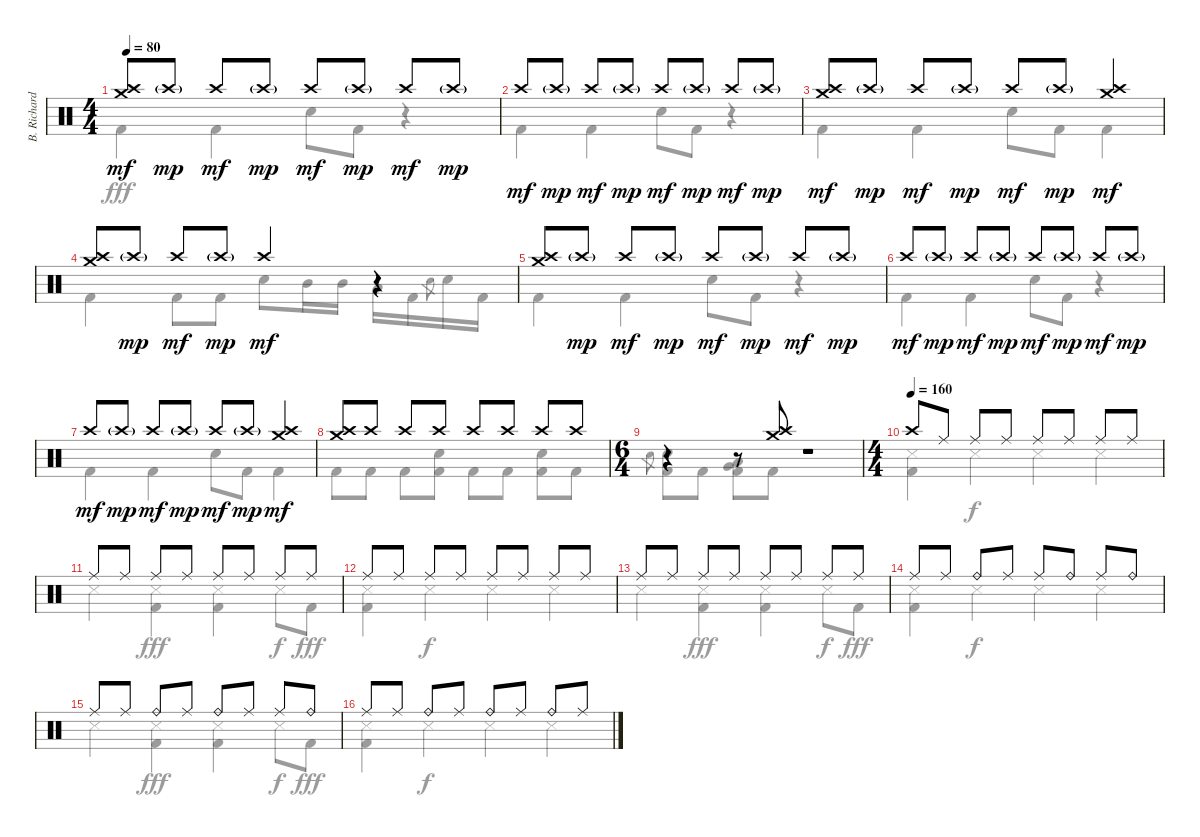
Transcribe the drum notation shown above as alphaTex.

\track ("B. Richardson Drums" "B. Richard") {instrument percussion}
\staff {score}
\articulation defaults
\voice
\ts (4 4)
\tempo 80
\clef neutral
\ks c
("Crash high (hit)" "Crash medium (hit)").8{dy mf} "Crash high (hit)"{g}.8{dy mp} "Crash high (hit)".8{dy mf} "Crash high (hit)"{g}.8{dy mp} "Crash high (hit)".8{dy mf} "Crash high (hit)"{g}.8{dy mp} "Crash high (hit)".8{dy mf} "Crash high (hit)"{g}.8{dy mp} |
"Crash high (hit)".8{dy mf} "Crash high (hit)"{g}.8{dy mp} "Crash high (hit)".8{dy mf} "Crash high (hit)"{g}.8{dy mp} "Crash high (hit)".8{dy mf} "Crash high (hit)"{g}.8{dy mp} "Crash high (hit)".8{dy mf} "Crash high (hit)"{g}.8{dy mp} |
("Crash high (hit)" "Crash medium (hit)").8{dy mf} "Crash high (hit)"{g}.8{dy mp} "Crash high (hit)".8{dy mf} "Crash high (hit)"{g}.8{dy mp} "Crash high (hit)".8{dy mf} "Crash high (hit)"{g}.8{dy mp} ("Crash high (hit)" "Crash medium (hit)").4{dy mf} |
("Crash high (hit)" "Crash medium (hit)").8 "Crash high (hit)"{g}.8{dy mp} "Crash high (hit)".8{dy mf} "Crash high (hit)"{g}.8{dy mp} "Crash high (hit)".4{dy mf} r.4 |
("Crash high (hit)" "Crash medium (hit)").8 "Crash high (hit)"{g}.8{dy mp} "Crash high (hit)".8{dy mf} "Crash high (hit)"{g}.8{dy mp} "Crash high (hit)".8{dy mf} "Crash high (hit)"{g}.8{dy mp} "Crash high (hit)".8{dy mf} "Crash high (hit)"{g}.8{dy mp} |
"Crash high (hit)".8{dy mf} "Crash high (hit)"{g}.8{dy mp} "Crash high (hit)".8{dy mf} "Crash high (hit)"{g}.8{dy mp} "Crash high (hit)".8{dy mf} "Crash high (hit)"{g}.8{dy mp} "Crash high (hit)".8{dy mf} "Crash high (hit)"{g}.8{dy mp} |
"Crash high (hit)".8{dy mf} "Crash high (hit)"{g}.8{dy mp} "Crash high (hit)".8{dy mf} "Crash high (hit)"{g}.8{dy mp} "Crash high (hit)".8{dy mf} "Crash high (hit)"{g}.8{dy mp} ("Crash high (hit)" "Crash medium (hit)").4{dy mf} |
("Crash high (hit)" "Crash medium (hit)").8 "Crash high (hit)".8 "Crash high (hit)".8 "Crash high (hit)".8 "Crash high (hit)".8 "Crash high (hit)".8 "Crash high (hit)".8 "Crash high (hit)".8 |
\ts (6 4)
r.4 r.8 ("Crash high (hit)" "Crash medium (hit)").8 r.1 |
\ts (4 4)
\tempo (160)
"Crash high (hit)".8 "Ride (middle)".8 "Ride (middle)".8 "Ride (middle)".8 "Ride (middle)".8 "Ride (middle)".8 "Ride (middle)".8 "Ride (middle)".8 |
"Ride (middle)".8 "Ride (middle)".8 "Ride (middle)".8 "Ride (middle)".8 "Ride (middle)".8 "Ride (middle)".8 "Ride (middle)".8 "Ride (middle)".8 |
"Ride (middle)".8 "Ride (middle)".8 "Ride (middle)".8 "Ride (middle)".8 "Ride (middle)".8 "Ride (middle)".8 "Ride (middle)".8 "Ride (middle)".8 |
"Ride (middle)".8 "Ride (middle)".8 "Ride (middle)".8 "Ride (middle)".8 "Ride (middle)".8 "Ride (middle)".8 "Ride (middle)".8 "Ride (middle)".8 |
"Ride (middle)".8 "Ride (middle)".8 "Ride (bell)".8 "Ride (middle)".8 "Ride (middle)".8 "Ride (bell)".8 "Ride (middle)".8 "Ride (bell)".8 |
"Ride (middle)".8 "Ride (middle)".8 "Ride (bell)".8 "Ride (middle)".8 "Ride (bell)".8 "Ride (middle)".8 "Ride (middle)".8 "Ride (bell)".8 |
"Ride (middle)".8 "Ride (middle)".8 "Ride (bell)".8 "Ride (middle)".8 "Ride (bell)".8 "Ride (middle)".8 "Ride (bell)".8 "Ride (middle)".8
\voice
\clef neutral
\ottava regular
\simile none
\ks c "Kick (hit) 2".4{dy fff} "Kick (hit) 2".4 "Electric Snare (hit)".8 "Kick (hit) 2".8
r.4 |
"Kick (hit) 2".4 "Kick (hit) 2".4 "Electric Snare (hit)".8 "Kick (hit) 2".8 r.4 |
"Kick (hit) 2".4 "Kick (hit) 2".4 "Electric Snare (hit)".8 "Kick (hit) 2".8 "Kick (hit) 2".4 |
"Kick (hit) 2".4 "Kick (hit) 2".8 "Kick (hit) 2".8 "Electric Snare (hit)".8 "Mid Tom (hit)".16 "Mid Tom (hit)".16 "Low Tom (hit)".16 "Kick (hit) 2".16 "Electric Snare (hit)".8{gr} "Electric Snare (hit)".16 "Kick (hit) 2".16 |
"Kick (hit) 2".4 "Kick (hit) 2".4 "Electric Snare (hit)".8 "Kick (hit) 2".8 r.4 |
"Kick (hit) 2".4 "Kick (hit) 2".4 "Electric Snare (hit)".8 "Kick (hit) 2".8 r.4 |
"Kick (hit) 2".4 "Kick (hit) 2".4 "Electric Snare (hit)".8 "Kick (hit) 2".8 "Kick (hit) 2".4 |
"Kick (hit) 2".8 "Kick (hit) 2".8 "Kick (hit) 2".8 ("Electric Snare (hit)" "Kick (hit) 2").8 "Kick (hit) 2".8 "Kick (hit) 2".8 ("Electric Snare (hit)" "Kick (hit) 2").8 "Kick (hit) 2".8 |
"Electric Snare (hit)".8{gr} ("Electric Snare (hit)" "Kick (hit) 2").8 "Kick (hit) 2".8 ("Low Tom (hit)" "Very Low Tom (hit)" "Kick (hit) 2").8 "Kick (hit) 2".8 r.1 |
("Snare (side stick) 3" "Kick (hit) 2").4 "Snare (side stick) 3".4{dy f} "Snare (side stick) 3".4 "Snare (side stick) 3".4 |
"Snare (side stick) 3".4 ("Snare (side stick) 3" "Kick (hit) 2").4{dy fff} ("Snare (side stick) 3" "Kick (hit) 2").4 "Snare (side stick) 3".8{dy f} "Kick (hit) 2".8{dy fff} |
("Snare (side stick) 3" "Kick (hit) 2").4 "Snare (side stick) 3".4{dy f} "Snare (side stick) 3".4 "Snare (side stick) 3".4 |
"Snare (side stick) 3".4 ("Snare (side stick) 3" "Kick (hit) 2").4{dy fff} ("Snare (side stick) 3" "Kick (hit) 2").4 "Snare (side stick) 3".8{dy f} "Kick (hit) 2".8{dy fff} |
("Snare (side stick) 3" "Kick (hit) 2").4 "Snare (side stick) 3".4{dy f} "Snare (side stick) 3".4 "Snare (side stick) 3".4 |
"Snare (side stick) 3".4 ("Snare (side stick) 3" "Kick (hit) 2").4{dy fff} ("Snare (side stick) 3" "Kick (hit) 2").4 "Snare (side stick) 3".8{dy f} "Kick (hit) 2".8{dy fff} |
("Snare (side stick) 3" "Kick (hit) 2").4 "Snare (side stick) 3".4{dy f} "Snare (side stick) 3".4 "Snare (side stick) 3".4
